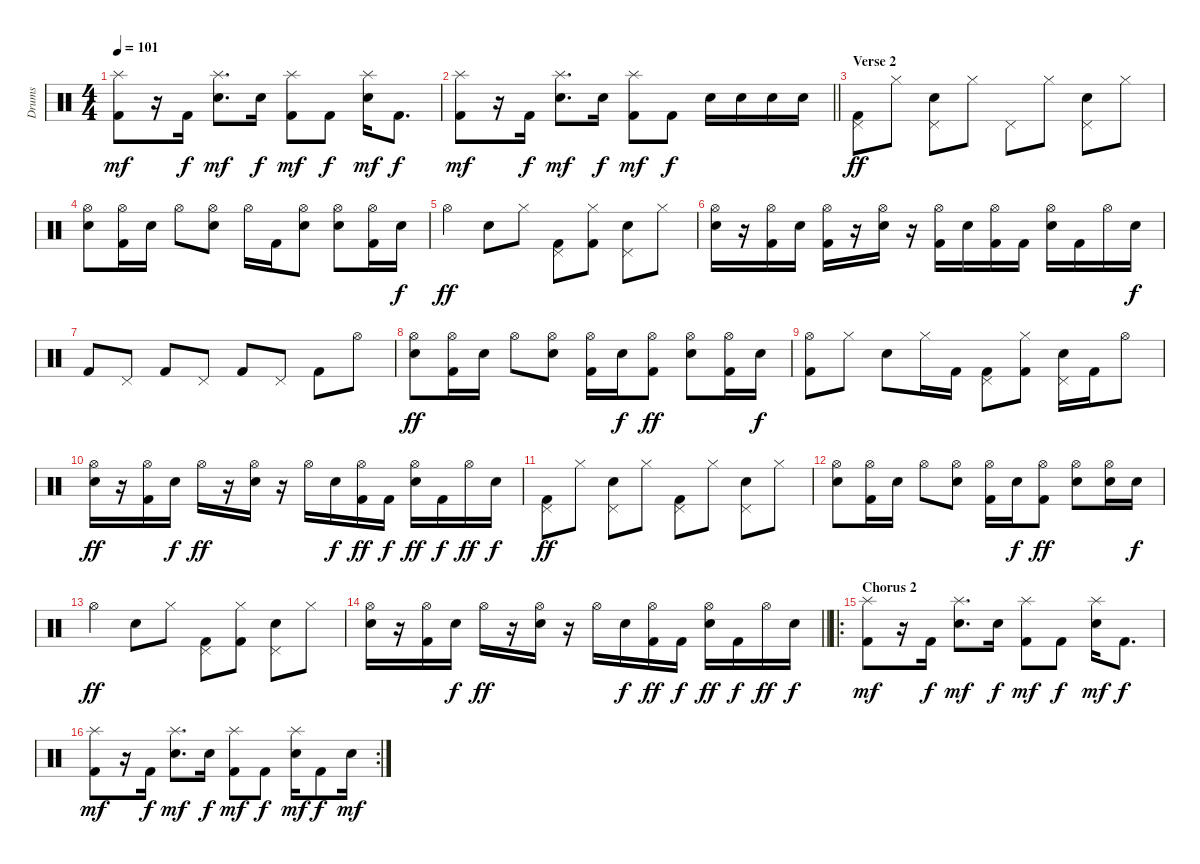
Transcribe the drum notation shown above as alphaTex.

\track ("Drums" "Drums") {instrument percussion}
\staff {score}
\articulation defaults
\ts (4 4)
\tempo 101
\clef neutral
\ks c
("Splash (hit)" "Kick (hit) 2").8{dy mf} r.16 "Kick (hit) 2".16{dy f} ("Splash (hit)" "Electric Snare (hit)").8{d dy mf} "Electric Snare (hit)".16{dy f} ("Splash (hit)" "Kick (hit) 2").8{dy mf} "Kick (hit) 2".8{dy f} ("Splash (hit)" "Electric Snare (hit)").16{dy mf} "Kick (hit) 2".8{d dy f} |
\barLineRight lightlight
("Splash (hit)" "Kick (hit) 2").8{dy mf} r.16 "Kick (hit) 2".16{dy f} ("Splash (hit)" "Electric Snare (hit)").8{d dy mf} "Electric Snare (hit)".16{dy f} ("Splash (hit)" "Kick (hit) 2").8{dy mf} "Kick (hit) 2".8{dy f} "Electric Snare (hit)".16 "Electric Snare (hit)".16 "Electric Snare (hit)".16 "Electric Snare (hit)".16 |
\section ("" "Verse 2")
("Pedal Hi-Hat (hit)" "Kick (hit) 2").8{dy ff} "Hi-Hat (closed)".8 ("Pedal Hi-Hat (hit)" "Electric Snare (hit)").8 "Hi-Hat (closed)".8 "Pedal Hi-Hat (hit)".8 "Hi-Hat (closed)".8 ("Pedal Hi-Hat (hit)" "Electric Snare (hit)").8 "Hi-Hat (closed)".8 |
("Hi-Hat (open)" "Electric Snare (hit)").8 ("Hi-Hat (open)" "Kick (hit) 2").16 "Electric Snare (hit)".16 "Hi-Hat (open)".8 ("Hi-Hat (open)" "Electric Snare (hit)").8 "Hi-Hat (open)".16 "Kick (hit) 2".16 ("Hi-Hat (open)" "Electric Snare (hit)").8 ("Hi-Hat (open)" "Electric Snare (hit)").8 ("Hi-Hat (open)" "Kick (hit) 2").16 "Electric Snare (hit)".16{dy f} |
"Hi-Hat (open)".4{dy ff} "Electric Snare (hit)".8 "Hi-Hat (closed)".8 ("Pedal Hi-Hat (hit)" "Kick (hit) 2").8 ("Hi-Hat (closed)" "Kick (hit) 2").8 ("Pedal Hi-Hat (hit)" "Electric Snare (hit)").8 "Hi-Hat (closed)".8 |
("Hi-Hat (open)" "Electric Snare (hit)").16 r.16 ("Hi-Hat (open)" "Kick (hit) 2").16 "Electric Snare (hit)".16 ("Hi-Hat (open)" "Kick (hit) 2").16 r.16 ("Hi-Hat (open)" "Electric Snare (hit)").16 r.16 ("Hi-Hat (open)" "Kick (hit) 2").16 "Electric Snare (hit)".16 ("Hi-Hat (open)" "Kick (hit) 2").16 "Kick (hit) 2".16 ("Hi-Hat (open)" "Electric Snare (hit)").16 "Kick (hit) 2".16 "Hi-Hat (open)".16 "Electric Snare (hit)".16{dy f} |
"Kick (hit) 2".8 "Pedal Hi-Hat (hit)".8 "Kick (hit) 2".8 "Pedal Hi-Hat (hit)".8 "Kick (hit) 2".8 "Pedal Hi-Hat (hit)".8 "Kick (hit) 2".8 "Hi-Hat (open)".8 |
("Hi-Hat (open)" "Electric Snare (hit)").8{dy ff} ("Hi-Hat (open)" "Kick (hit) 2").16 "Electric Snare (hit)".16 "Hi-Hat (open)".8 ("Hi-Hat (open)" "Electric Snare (hit)").8 ("Hi-Hat (open)" "Kick (hit) 2").16 "Electric Snare (hit)".16{dy f} ("Hi-Hat (open)" "Kick (hit) 2").8{dy ff} ("Hi-Hat (open)" "Electric Snare (hit)").8 ("Hi-Hat (open)" "Kick (hit) 2").16 "Electric Snare (hit)".16{dy f} |
("Hi-Hat (open)" "Kick (hit) 2").8 "Hi-Hat (closed)".8 "Electric Snare (hit)".8 "Hi-Hat (closed)".16 "Kick (hit) 2".16 ("Pedal Hi-Hat (hit)" "Kick (hit) 2").8 ("Hi-Hat (closed)" "Kick (hit) 2").8 ("Pedal Hi-Hat (hit)" "Electric Snare (hit)").16 "Kick (hit) 2".16 "Hi-Hat (open)".8 |
("Hi-Hat (open)" "Electric Snare (hit)").16{dy ff} r.16 ("Hi-Hat (open)" "Kick (hit) 2").16 "Electric Snare (hit)".16{dy f} "Hi-Hat (open)".16{dy ff} r.16 ("Hi-Hat (open)" "Electric Snare (hit)").16 r.16 "Hi-Hat (open)".16 "Electric Snare (hit)".16{dy f} ("Hi-Hat (open)" "Kick (hit) 2").16{dy ff} "Kick (hit) 2".16{dy f} ("Hi-Hat (open)" "Electric Snare (hit)").16{dy ff} "Kick (hit) 2".16{dy f} "Hi-Hat (open)".16{dy ff} "Electric Snare (hit)".16{dy f} |
("Pedal Hi-Hat (hit)" "Kick (hit) 2").8{dy ff} "Hi-Hat (closed)".8 ("Pedal Hi-Hat (hit)" "Electric Snare (hit)").8 "Hi-Hat (closed)".8 ("Pedal Hi-Hat (hit)" "Kick (hit) 2").8 "Hi-Hat (closed)".8 ("Pedal Hi-Hat (hit)" "Electric Snare (hit)").8 "Hi-Hat (closed)".8 |
("Hi-Hat (open)" "Electric Snare (hit)").8 ("Hi-Hat (open)" "Kick (hit) 2").16 "Electric Snare (hit)".16 "Hi-Hat (open)".8 ("Hi-Hat (open)" "Electric Snare (hit)").8 ("Hi-Hat (open)" "Kick (hit) 2").16 "Electric Snare (hit)".16{dy f} ("Hi-Hat (open)" "Kick (hit) 2").8{dy ff} ("Hi-Hat (open)" "Electric Snare (hit)").8 ("Hi-Hat (open)" "Electric Snare (hit)").16 "Electric Snare (hit)".16{dy f} |
"Hi-Hat (open)".4{dy ff} "Electric Snare (hit)".8 "Hi-Hat (closed)".8 ("Pedal Hi-Hat (hit)" "Kick (hit) 2").8 ("Hi-Hat (closed)" "Kick (hit) 2").8 ("Pedal Hi-Hat (hit)" "Electric Snare (hit)").8 "Hi-Hat (closed)".8 |
\barLineRight lightlight
("Hi-Hat (open)" "Electric Snare (hit)").16 r.16 ("Hi-Hat (open)" "Kick (hit) 2").16 "Electric Snare (hit)".16{dy f} "Hi-Hat (open)".16{dy ff} r.16 ("Hi-Hat (open)" "Electric Snare (hit)").16 r.16 "Hi-Hat (open)".16 "Electric Snare (hit)".16{dy f} ("Hi-Hat (open)" "Kick (hit) 2").16{dy ff} "Kick (hit) 2".16{dy f} ("Hi-Hat (open)" "Electric Snare (hit)").16{dy ff} "Kick (hit) 2".16{dy f} "Hi-Hat (open)".16{dy ff} "Electric Snare (hit)".16{dy f} |
\ro
\section ("" "Chorus 2")
("Splash (hit)" "Kick (hit) 2").8{dy mf} r.16 "Kick (hit) 2".16{dy f} ("Splash (hit)" "Electric Snare (hit)").8{d dy mf} "Electric Snare (hit)".16{dy f} ("Splash (hit)" "Kick (hit) 2").8{dy mf} "Kick (hit) 2".8{dy f} ("Splash (hit)" "Electric Snare (hit)").16{dy mf} "Kick (hit) 2".8{d dy f} |
\rc 2
("Splash (hit)" "Kick (hit) 2").8{dy mf} r.16 "Kick (hit) 2".16{dy f} ("Splash (hit)" "Electric Snare (hit)").8{d dy mf} "Electric Snare (hit)".16{dy f} ("Splash (hit)" "Kick (hit) 2").8{dy mf} "Kick (hit) 2".8{dy f} ("Splash (hit)" "Electric Snare (hit)").16{dy mf} "Kick (hit) 2".8{dy f} "Electric Snare (hit)".16{dy mf}
